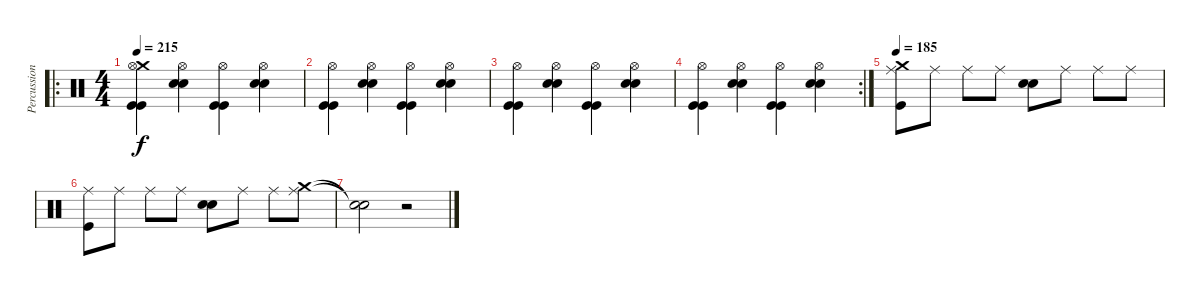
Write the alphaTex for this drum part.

\track ("Percussion" "Percussion") {instrument percussion}
\staff {score}
\articulation defaults
\ro
\ts (4 4)
\tempo 215
\clef neutral
\ks c
("Crash medium (hit)" "Hi-Hat (open)" "Kick (hit)" "Kick (hit)").4{dy f} ("Hi-Hat (open)" "Snare (hit) 2" "Snare (hit) 2").4 ("Hi-Hat (open)" "Kick (hit)" "Kick (hit)").4 ("Hi-Hat (open)" "Snare (hit) 2" "Snare (hit) 2").4 |
("Hi-Hat (open)" "Kick (hit)" "Kick (hit)").4 ("Hi-Hat (open)" "Snare (hit) 2" "Snare (hit) 2").4 ("Hi-Hat (open)" "Kick (hit)" "Kick (hit)").4 ("Hi-Hat (open)" "Snare (hit) 2" "Snare (hit) 2").4 |
("Hi-Hat (open)" "Kick (hit)" "Kick (hit)").4 ("Hi-Hat (open)" "Snare (hit) 2" "Snare (hit) 2").4 ("Hi-Hat (open)" "Kick (hit)" "Kick (hit)").4 ("Hi-Hat (open)" "Snare (hit) 2" "Snare (hit) 2").4 |
\rc 2
("Hi-Hat (open)" "Kick (hit)" "Kick (hit)").4 ("Hi-Hat (open)" "Snare (hit) 2" "Snare (hit) 2").4 ("Hi-Hat (open)" "Kick (hit)" "Kick (hit)").4 ("Hi-Hat (open)" "Snare (hit) 2" "Snare (hit) 2").4 |
\tempo 185
("Crash medium (hit)" "Ride (middle)" "Kick (hit)").8 "Ride (middle)".8 "Ride (middle)".8 "Ride (middle)".8 ("Snare (hit) 2" "Snare (hit) 2").8 "Ride (middle)".8 "Ride (middle)".8 "Ride (middle)".8 |
("Ride (middle)" "Kick (hit)").8 "Ride (middle)".8 "Ride (middle)".8 "Ride (middle)".8 ("Snare (hit) 2" "Snare (hit) 2").8 "Ride (middle)".8 "Ride (middle)".8 ("Crash medium (hit)" "Ride (middle)").8 |
("Snare (hit)"{t} "Snare (hit)"{t}).2 r.2
